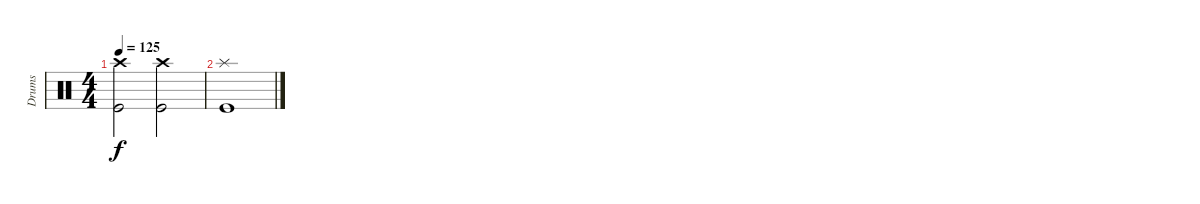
\track ("Drums" "Drums") {instrument percussion}
\staff {score}
\articulation defaults
\ts (4 4)
\tempo 125
\clef neutral
\ks c
("Crash high (hit)" "Kick (hit)").2{dy f} ("Crash high (hit)" "Kick (hit)").2 |
("Splash (hit)" "Kick (hit)").1
